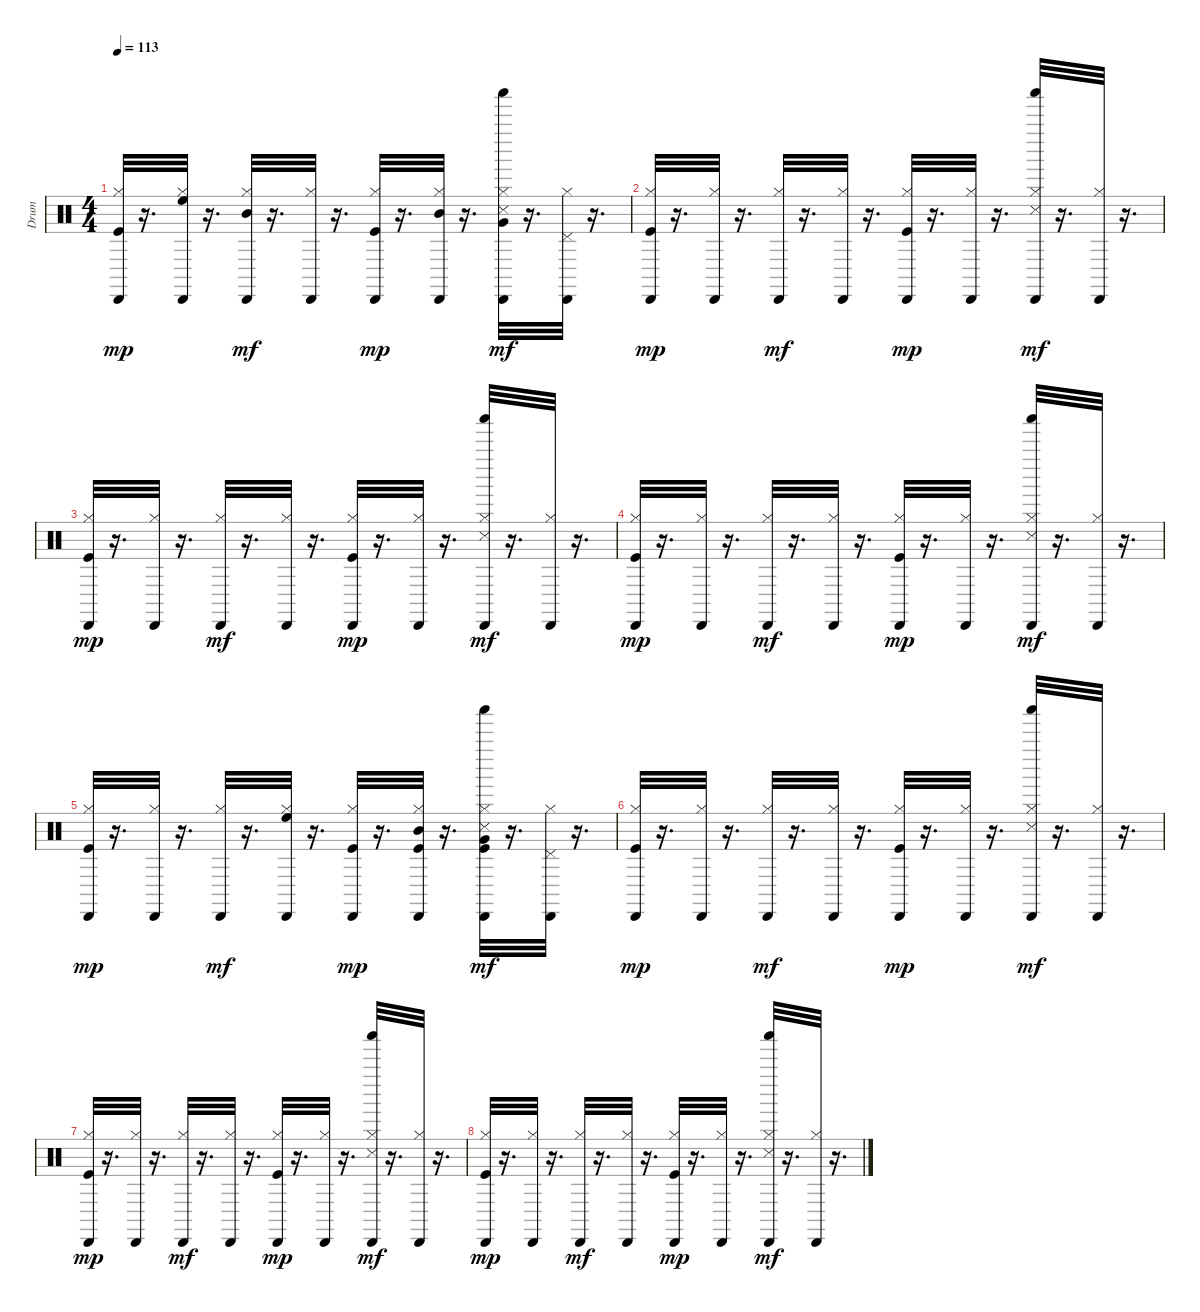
\track ("Drum" "Drum") {instrument percussion}
\staff {score}
\articulation defaults
\ts (4 4)
\tempo 113
\clef neutral
\ks c
("Hi-Hat (closed)" "Kick (hit)" "Cabasa (hit)").32{dy mp} r.16{d} ("Hi-Hat (closed)" "High Floor Tom (hit)" "Cabasa (hit)").32 r.16{d} ("Hi-Hat (closed)" "Mid Tom (hit)" "Cabasa (hit)").32{dy mf} r.16{d} ("Hi-Hat (closed)" "Cabasa (hit)").32 r.16{d} ("Hi-Hat (closed)" "Kick (hit)" "Cabasa (hit)").32{dy mp} r.16{d} ("Hi-Hat (closed)" "Mid Tom (hit)" "Cabasa (hit)").32 r.16{d} ("Hi-Hat (closed)" "Very Low Tom (hit)" "Shaker (hit)" "Snare (side stick) 3" "Cabasa (hit)").32{dy mf} r.16{d} ("Hi-Hat (closed)" "Pedal Hi-Hat (hit)" "Cabasa (hit)").32 r.16{d} |
("Hi-Hat (closed)" "Kick (hit)" "Cabasa (hit)").32{dy mp} r.16{d} ("Hi-Hat (closed)" "Cabasa (hit)").32 r.16{d} ("Hi-Hat (closed)" "Cabasa (hit)").32{dy mf} r.16{d} ("Hi-Hat (closed)" "Cabasa (hit)").32 r.16{d} ("Hi-Hat (closed)" "Kick (hit)" "Cabasa (hit)").32{dy mp} r.16{d} ("Hi-Hat (closed)" "Cabasa (hit)").32 r.16{d} ("Hi-Hat (closed)" "Shaker (hit)" "Snare (side stick) 3" "Cabasa (hit)").32{dy mf} r.16{d} ("Hi-Hat (closed)" "Cabasa (hit)").32 r.16{d} |
("Hi-Hat (closed)" "Kick (hit)" "Cabasa (hit)").32{dy mp} r.16{d} ("Hi-Hat (closed)" "Cabasa (hit)").32 r.16{d} ("Hi-Hat (closed)" "Cabasa (hit)").32{dy mf} r.16{d} ("Hi-Hat (closed)" "Cabasa (hit)").32 r.16{d} ("Hi-Hat (closed)" "Kick (hit)" "Cabasa (hit)").32{dy mp} r.16{d} ("Hi-Hat (closed)" "Cabasa (hit)").32 r.16{d} ("Hi-Hat (closed)" "Shaker (hit)" "Snare (side stick) 3" "Cabasa (hit)").32{dy mf} r.16{d} ("Hi-Hat (closed)" "Cabasa (hit)").32 r.16{d} |
("Hi-Hat (closed)" "Kick (hit)" "Cabasa (hit)").32{dy mp} r.16{d} ("Hi-Hat (closed)" "Cabasa (hit)").32 r.16{d} ("Hi-Hat (closed)" "Cabasa (hit)").32{dy mf} r.16{d} ("Hi-Hat (closed)" "Cabasa (hit)").32 r.16{d} ("Hi-Hat (closed)" "Kick (hit)" "Cabasa (hit)").32{dy mp} r.16{d} ("Hi-Hat (closed)" "Cabasa (hit)").32 r.16{d} ("Hi-Hat (closed)" "Shaker (hit)" "Snare (side stick) 3" "Cabasa (hit)").32{dy mf} r.16{d} ("Hi-Hat (closed)" "Cabasa (hit)").32 r.16{d} |
("Hi-Hat (closed)" "Kick (hit)" "Cabasa (hit)").32{dy mp} r.16{d} ("Hi-Hat (closed)" "Cabasa (hit)").32 r.16{d} ("Hi-Hat (closed)" "Cabasa (hit)").32{dy mf} r.16{d} ("Hi-Hat (closed)" "High Floor Tom (hit)" "Cabasa (hit)").32 r.16{d} ("Hi-Hat (closed)" "Kick (hit)" "Cabasa (hit)").32{dy mp} r.16{d} ("Hi-Hat (closed)" "Mid Tom (hit)" "Kick (hit)" "Cabasa (hit)").32 r.16{d} ("Hi-Hat (closed)" "Very Low Tom (hit)" "Shaker (hit)" "Snare (side stick) 3" "Kick (hit)" "Cabasa (hit)").32{dy mf} r.16{d} ("Hi-Hat (closed)" "Pedal Hi-Hat (hit)" "Cabasa (hit)").32 r.16{d} |
("Hi-Hat (closed)" "Kick (hit)" "Cabasa (hit)").32{dy mp} r.16{d} ("Hi-Hat (closed)" "Cabasa (hit)").32 r.16{d} ("Hi-Hat (closed)" "Cabasa (hit)").32{dy mf} r.16{d} ("Hi-Hat (closed)" "Cabasa (hit)").32 r.16{d} ("Hi-Hat (closed)" "Kick (hit)" "Cabasa (hit)").32{dy mp} r.16{d} ("Hi-Hat (closed)" "Cabasa (hit)").32 r.16{d} ("Hi-Hat (closed)" "Shaker (hit)" "Snare (side stick) 3" "Cabasa (hit)").32{dy mf} r.16{d} ("Hi-Hat (closed)" "Cabasa (hit)").32 r.16{d} |
("Hi-Hat (closed)" "Kick (hit)" "Cabasa (hit)").32{dy mp} r.16{d} ("Hi-Hat (closed)" "Cabasa (hit)").32 r.16{d} ("Hi-Hat (closed)" "Cabasa (hit)").32{dy mf} r.16{d} ("Hi-Hat (closed)" "Cabasa (hit)").32 r.16{d} ("Hi-Hat (closed)" "Kick (hit)" "Cabasa (hit)").32{dy mp} r.16{d} ("Hi-Hat (closed)" "Cabasa (hit)").32 r.16{d} ("Hi-Hat (closed)" "Shaker (hit)" "Snare (side stick) 3" "Cabasa (hit)").32{dy mf} r.16{d} ("Hi-Hat (closed)" "Cabasa (hit)").32 r.16{d} |
("Hi-Hat (closed)" "Kick (hit)" "Cabasa (hit)").32{dy mp} r.16{d} ("Hi-Hat (closed)" "Cabasa (hit)").32 r.16{d} ("Hi-Hat (closed)" "Cabasa (hit)").32{dy mf} r.16{d} ("Hi-Hat (closed)" "Cabasa (hit)").32 r.16{d} ("Hi-Hat (closed)" "Kick (hit)" "Cabasa (hit)").32{dy mp} r.16{d} ("Hi-Hat (closed)" "Cabasa (hit)").32 r.16{d} ("Hi-Hat (closed)" "Shaker (hit)" "Snare (side stick) 3" "Cabasa (hit)").32{dy mf} r.16{d} ("Hi-Hat (closed)" "Cabasa (hit)").32 r.16{d}
